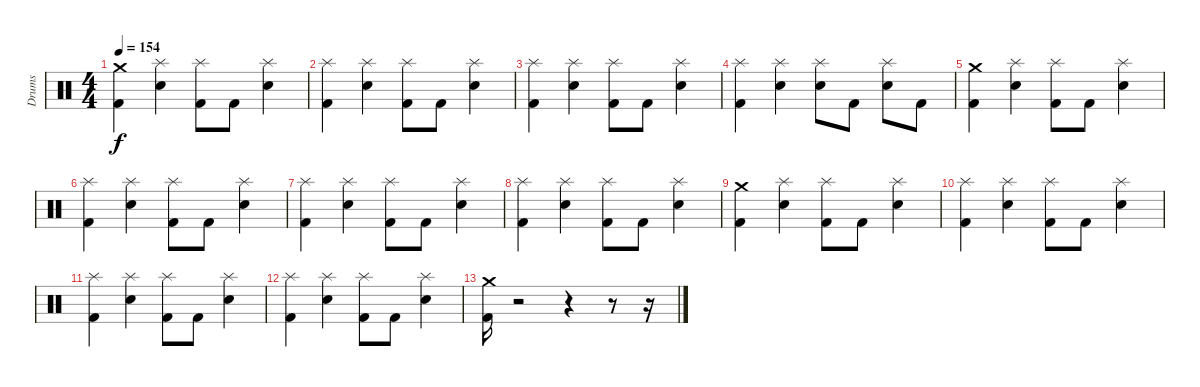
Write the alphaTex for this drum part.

\track ("Drums" "Drums") {instrument percussion}
\staff {score}
\articulation defaults
\ts (4 4)
\tempo 154
\clef neutral
\ks c
("Kick (hit) 2" "Crash medium (hit)").4{dy f} ("Splash (hit)" "Electric Snare (hit)").4 ("Kick (hit) 2" "Splash (hit)").8 "Kick (hit) 2".8 ("Splash (hit)" "Electric Snare (hit)").4 |
("Kick (hit) 2" "Splash (hit)").4 ("Splash (hit)" "Electric Snare (hit)").4 ("Kick (hit) 2" "Splash (hit)").8 "Kick (hit) 2".8 ("Splash (hit)" "Electric Snare (hit)").4 |
("Kick (hit) 2" "Splash (hit)").4 ("Electric Snare (hit)" "Splash (hit)").4 ("Kick (hit) 2" "Splash (hit)").8 "Kick (hit) 2".8 ("Electric Snare (hit)" "Splash (hit)").4 |
("Kick (hit) 2" "Splash (hit)").4 ("Electric Snare (hit)" "Splash (hit)").4 ("Snare (hit) 2" "Splash (hit)").8 "Kick (hit) 2".8 ("Electric Snare (hit)" "Splash (hit)").8 "Kick (hit) 2".8 |
("Kick (hit) 2" "Crash medium (hit)").4 ("Splash (hit)" "Electric Snare (hit)").4 ("Kick (hit) 2" "Splash (hit)").8 "Kick (hit) 2".8 ("Splash (hit)" "Electric Snare (hit)").4 |
("Kick (hit) 2" "Splash (hit)").4 ("Splash (hit)" "Electric Snare (hit)").4 ("Kick (hit) 2" "Splash (hit)").8 "Kick (hit) 2".8 ("Splash (hit)" "Electric Snare (hit)").4 |
("Kick (hit) 2" "Splash (hit)").4 ("Electric Snare (hit)" "Splash (hit)").4 ("Kick (hit) 2" "Splash (hit)").8 "Kick (hit) 2".8 ("Electric Snare (hit)" "Splash (hit)").4 |
("Kick (hit) 2" "Splash (hit)").4 ("Electric Snare (hit)" "Splash (hit)").4 ("Kick (hit) 2" "Splash (hit)").8 "Kick (hit) 2".8 ("Electric Snare (hit)" "Splash (hit)").4 |
("Kick (hit) 2" "Crash medium (hit)").4 ("Splash (hit)" "Electric Snare (hit)").4 ("Kick (hit) 2" "Splash (hit)").8 "Kick (hit) 2".8 ("Splash (hit)" "Electric Snare (hit)").4 |
("Kick (hit) 2" "Splash (hit)").4 ("Splash (hit)" "Electric Snare (hit)").4 ("Kick (hit) 2" "Splash (hit)").8 "Kick (hit) 2".8 ("Splash (hit)" "Electric Snare (hit)").4 |
("Kick (hit) 2" "Splash (hit)").4 ("Electric Snare (hit)" "Splash (hit)").4 ("Kick (hit) 2" "Splash (hit)").8 "Kick (hit) 2".8 ("Electric Snare (hit)" "Splash (hit)").4 |
("Kick (hit) 2" "Splash (hit)").4 ("Electric Snare (hit)" "Splash (hit)").4 ("Kick (hit) 2" "Splash (hit)").8 "Kick (hit) 2".8 ("Electric Snare (hit)" "Splash (hit)").4 |
("Kick (hit) 2" "Crash medium (hit)").16 r.2 r.4 r.8 r.16
